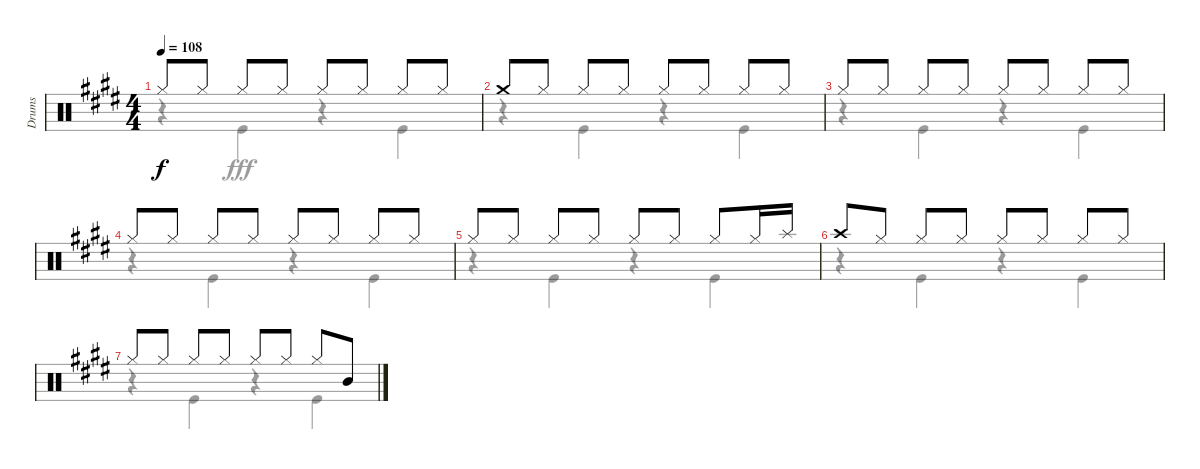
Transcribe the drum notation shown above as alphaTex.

\track ("Drums" "Drums") {instrument percussion}
\staff {score}
\articulation defaults
\voice
\ts (4 4)
\tempo 108
\clef neutral
\ks e "Hi-Hat (closed)".8{dy f} "Hi-Hat (closed)".8 "Hi-Hat (closed)".8 "Hi-Hat (closed)".8 "Hi-Hat (closed)".8 "Hi-Hat (closed)".8 "Hi-Hat (closed)".8 "Hi-Hat (closed)".8
|
"Crash medium (hit)".8 "Hi-Hat (closed)".8 "Hi-Hat (closed)".8 "Hi-Hat (closed)".8 "Hi-Hat (closed)".8 "Hi-Hat (closed)".8 "Hi-Hat (closed)".8 "Hi-Hat (closed)".8 |
"Hi-Hat (closed)".8 "Hi-Hat (closed)".8 "Hi-Hat (closed)".8 "Hi-Hat (closed)".8 "Hi-Hat (closed)".8 "Hi-Hat (closed)".8 "Hi-Hat (closed)".8 "Hi-Hat (closed)".8 |
"Hi-Hat (closed)".8 "Hi-Hat (closed)".8 "Hi-Hat (closed)".8 "Hi-Hat (closed)".8 "Hi-Hat (closed)".8 "Hi-Hat (closed)".8 "Hi-Hat (closed)".8 "Hi-Hat (closed)".8 |
"Hi-Hat (closed)".8 "Hi-Hat (closed)".8 "Hi-Hat (closed)".8 "Hi-Hat (closed)".8 "Hi-Hat (closed)".8 "Hi-Hat (closed)".8 "Hi-Hat (closed)".8 "Hi-Hat (closed)".16 "Splash (hit)".16 |
"Crash high (hit)".8 "Hi-Hat (closed)".8 "Hi-Hat (closed)".8 "Hi-Hat (closed)".8 "Hi-Hat (closed)".8 "Hi-Hat (closed)".8 "Hi-Hat (closed)".8 "Hi-Hat (closed)".8 |
"Hi-Hat (closed)".8 "Hi-Hat (closed)".8 "Hi-Hat (closed)".8 "Hi-Hat (closed)".8 "Hi-Hat (closed)".8 "Hi-Hat (closed)".8 "Hi-Hat (closed)".8 "Mid Tom (hit)".8
\voice
\clef neutral
\ottava regular
\simile none
\ks e
r.4{dy fff} "Kick (hit)".4 r.4 "Kick (hit)".4 |
r.4 "Kick (hit)".4 r.4 "Kick (hit)".4 |
r.4 "Kick (hit)".4 r.4 "Kick (hit)".4 |
r.4 "Kick (hit)".4 r.4 "Kick (hit)".4 |
r.4 "Kick (hit)".4 r.4 "Kick (hit)".4 |
r.4 "Kick (hit)".4 r.4 "Kick (hit)".4 |
r.4 "Kick (hit)".4 r.4 "Kick (hit)".4
